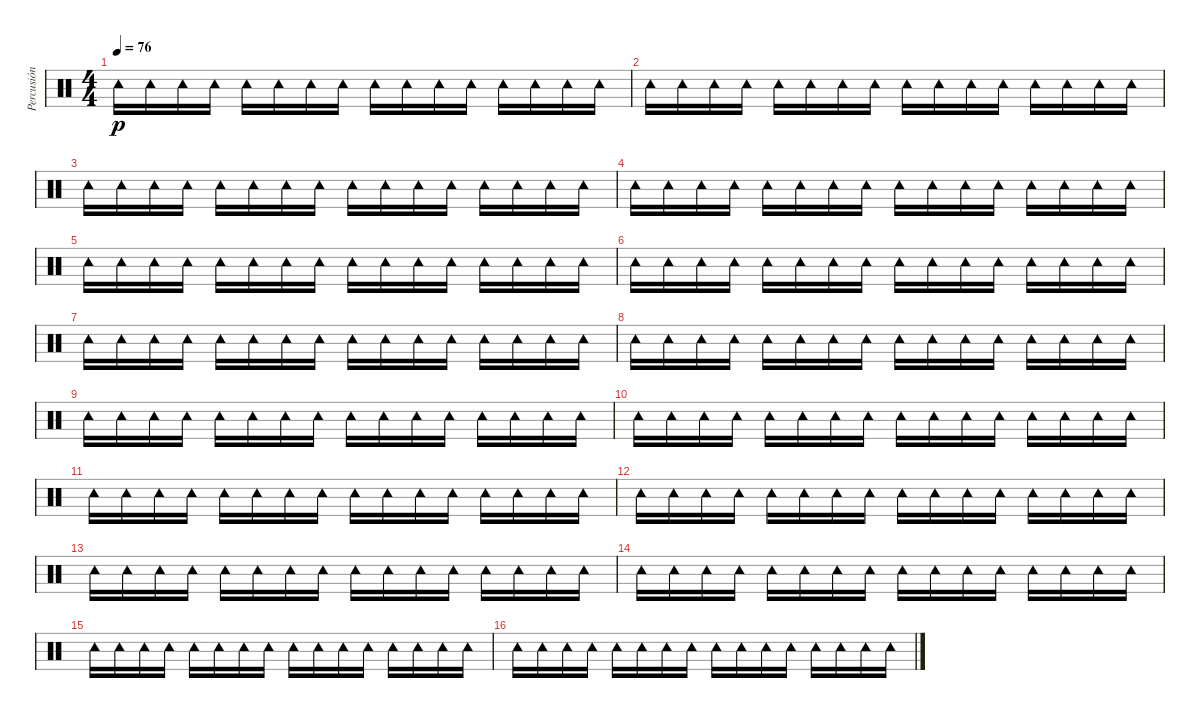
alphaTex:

\track ("Percusión" "Percusión") {instrument percussion}
\staff {score}
\articulation defaults
\ts (4 4)
\tempo 76
\clef neutral
\ks c "Tambourine (hit)".16{dy p} "Tambourine (hit)".16 "Tambourine (hit)".16 "Tambourine (hit)".16 "Tambourine (hit)".16 "Tambourine (hit)".16 "Tambourine (hit)".16 "Tambourine (hit)".16 "Tambourine (hit)".16 "Tambourine (hit)".16 "Tambourine (hit)".16 "Tambourine (hit)".16 "Tambourine (hit)".16 "Tambourine (hit)".16 "Tambourine (hit)".16 "Tambourine (hit)".16
|
"Tambourine (hit)".16 "Tambourine (hit)".16 "Tambourine (hit)".16 "Tambourine (hit)".16 "Tambourine (hit)".16 "Tambourine (hit)".16 "Tambourine (hit)".16 "Tambourine (hit)".16 "Tambourine (hit)".16 "Tambourine (hit)".16 "Tambourine (hit)".16 "Tambourine (hit)".16 "Tambourine (hit)".16 "Tambourine (hit)".16 "Tambourine (hit)".16 "Tambourine (hit)".16 |
"Tambourine (hit)".16 "Tambourine (hit)".16 "Tambourine (hit)".16 "Tambourine (hit)".16 "Tambourine (hit)".16 "Tambourine (hit)".16 "Tambourine (hit)".16 "Tambourine (hit)".16 "Tambourine (hit)".16 "Tambourine (hit)".16 "Tambourine (hit)".16 "Tambourine (hit)".16 "Tambourine (hit)".16 "Tambourine (hit)".16 "Tambourine (hit)".16 "Tambourine (hit)".16 |
"Tambourine (hit)".16 "Tambourine (hit)".16 "Tambourine (hit)".16 "Tambourine (hit)".16 "Tambourine (hit)".16 "Tambourine (hit)".16 "Tambourine (hit)".16 "Tambourine (hit)".16 "Tambourine (hit)".16 "Tambourine (hit)".16 "Tambourine (hit)".16 "Tambourine (hit)".16 "Tambourine (hit)".16 "Tambourine (hit)".16 "Tambourine (hit)".16 "Tambourine (hit)".16 |
"Tambourine (hit)".16 "Tambourine (hit)".16 "Tambourine (hit)".16 "Tambourine (hit)".16 "Tambourine (hit)".16 "Tambourine (hit)".16 "Tambourine (hit)".16 "Tambourine (hit)".16 "Tambourine (hit)".16 "Tambourine (hit)".16 "Tambourine (hit)".16 "Tambourine (hit)".16 "Tambourine (hit)".16 "Tambourine (hit)".16 "Tambourine (hit)".16 "Tambourine (hit)".16 |
"Tambourine (hit)".16 "Tambourine (hit)".16 "Tambourine (hit)".16 "Tambourine (hit)".16 "Tambourine (hit)".16 "Tambourine (hit)".16 "Tambourine (hit)".16 "Tambourine (hit)".16 "Tambourine (hit)".16 "Tambourine (hit)".16 "Tambourine (hit)".16 "Tambourine (hit)".16 "Tambourine (hit)".16 "Tambourine (hit)".16 "Tambourine (hit)".16 "Tambourine (hit)".16 |
"Tambourine (hit)".16 "Tambourine (hit)".16 "Tambourine (hit)".16 "Tambourine (hit)".16 "Tambourine (hit)".16 "Tambourine (hit)".16 "Tambourine (hit)".16 "Tambourine (hit)".16 "Tambourine (hit)".16 "Tambourine (hit)".16 "Tambourine (hit)".16 "Tambourine (hit)".16 "Tambourine (hit)".16 "Tambourine (hit)".16 "Tambourine (hit)".16 "Tambourine (hit)".16 |
"Tambourine (hit)".16 "Tambourine (hit)".16 "Tambourine (hit)".16 "Tambourine (hit)".16 "Tambourine (hit)".16 "Tambourine (hit)".16 "Tambourine (hit)".16 "Tambourine (hit)".16 "Tambourine (hit)".16 "Tambourine (hit)".16 "Tambourine (hit)".16 "Tambourine (hit)".16 "Tambourine (hit)".16 "Tambourine (hit)".16 "Tambourine (hit)".16 "Tambourine (hit)".16 |
"Tambourine (hit)".16 "Tambourine (hit)".16 "Tambourine (hit)".16 "Tambourine (hit)".16 "Tambourine (hit)".16 "Tambourine (hit)".16 "Tambourine (hit)".16 "Tambourine (hit)".16 "Tambourine (hit)".16 "Tambourine (hit)".16 "Tambourine (hit)".16 "Tambourine (hit)".16 "Tambourine (hit)".16 "Tambourine (hit)".16 "Tambourine (hit)".16 "Tambourine (hit)".16 |
"Tambourine (hit)".16 "Tambourine (hit)".16 "Tambourine (hit)".16 "Tambourine (hit)".16 "Tambourine (hit)".16 "Tambourine (hit)".16 "Tambourine (hit)".16 "Tambourine (hit)".16 "Tambourine (hit)".16 "Tambourine (hit)".16 "Tambourine (hit)".16 "Tambourine (hit)".16 "Tambourine (hit)".16 "Tambourine (hit)".16 "Tambourine (hit)".16 "Tambourine (hit)".16 |
"Tambourine (hit)".16 "Tambourine (hit)".16 "Tambourine (hit)".16 "Tambourine (hit)".16 "Tambourine (hit)".16 "Tambourine (hit)".16 "Tambourine (hit)".16 "Tambourine (hit)".16 "Tambourine (hit)".16 "Tambourine (hit)".16 "Tambourine (hit)".16 "Tambourine (hit)".16 "Tambourine (hit)".16 "Tambourine (hit)".16 "Tambourine (hit)".16 "Tambourine (hit)".16 |
"Tambourine (hit)".16 "Tambourine (hit)".16 "Tambourine (hit)".16 "Tambourine (hit)".16 "Tambourine (hit)".16 "Tambourine (hit)".16 "Tambourine (hit)".16 "Tambourine (hit)".16 "Tambourine (hit)".16 "Tambourine (hit)".16 "Tambourine (hit)".16 "Tambourine (hit)".16 "Tambourine (hit)".16 "Tambourine (hit)".16 "Tambourine (hit)".16 "Tambourine (hit)".16 |
"Tambourine (hit)".16 "Tambourine (hit)".16 "Tambourine (hit)".16 "Tambourine (hit)".16 "Tambourine (hit)".16 "Tambourine (hit)".16 "Tambourine (hit)".16 "Tambourine (hit)".16 "Tambourine (hit)".16 "Tambourine (hit)".16 "Tambourine (hit)".16 "Tambourine (hit)".16 "Tambourine (hit)".16 "Tambourine (hit)".16 "Tambourine (hit)".16 "Tambourine (hit)".16 |
"Tambourine (hit)".16 "Tambourine (hit)".16 "Tambourine (hit)".16 "Tambourine (hit)".16 "Tambourine (hit)".16 "Tambourine (hit)".16 "Tambourine (hit)".16 "Tambourine (hit)".16 "Tambourine (hit)".16 "Tambourine (hit)".16 "Tambourine (hit)".16 "Tambourine (hit)".16 "Tambourine (hit)".16 "Tambourine (hit)".16 "Tambourine (hit)".16 "Tambourine (hit)".16 |
"Tambourine (hit)".16 "Tambourine (hit)".16 "Tambourine (hit)".16 "Tambourine (hit)".16 "Tambourine (hit)".16 "Tambourine (hit)".16 "Tambourine (hit)".16 "Tambourine (hit)".16 "Tambourine (hit)".16 "Tambourine (hit)".16 "Tambourine (hit)".16 "Tambourine (hit)".16 "Tambourine (hit)".16 "Tambourine (hit)".16 "Tambourine (hit)".16 "Tambourine (hit)".16 |
"Tambourine (hit)".16 "Tambourine (hit)".16 "Tambourine (hit)".16 "Tambourine (hit)".16 "Tambourine (hit)".16 "Tambourine (hit)".16 "Tambourine (hit)".16 "Tambourine (hit)".16 "Tambourine (hit)".16 "Tambourine (hit)".16 "Tambourine (hit)".16 "Tambourine (hit)".16 "Tambourine (hit)".16 "Tambourine (hit)".16 "Tambourine (hit)".16 "Tambourine (hit)".16
